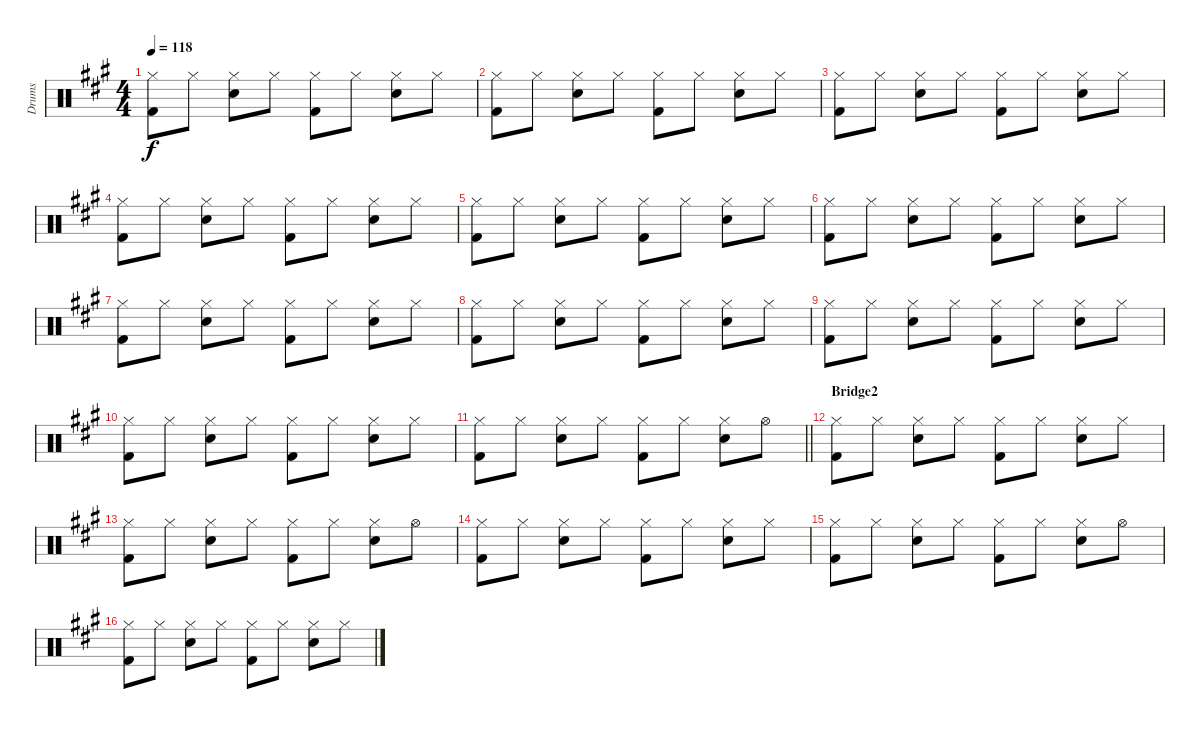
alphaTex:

\track ("Drums" "Drums") {instrument percussion}
\staff {score}
\articulation defaults
\ts (4 4)
\tempo 118
\clef neutral
\ks f#minor
("Hi-Hat (closed)" "Kick (hit) 2").8{dy f} "Hi-Hat (closed)".8 ("Hi-Hat (closed)" "Snare (hit) 2").8 "Hi-Hat (closed)".8 ("Hi-Hat (closed)" "Kick (hit) 2").8 "Hi-Hat (closed)".8 ("Hi-Hat (closed)" "Snare (hit) 2").8 "Hi-Hat (closed)".8 |
("Hi-Hat (closed)" "Kick (hit) 2").8 "Hi-Hat (closed)".8 ("Hi-Hat (closed)" "Snare (hit) 2").8 "Hi-Hat (closed)".8 ("Hi-Hat (closed)" "Kick (hit) 2").8 "Hi-Hat (closed)".8 ("Hi-Hat (closed)" "Snare (hit) 2").8 "Hi-Hat (closed)".8 |
("Hi-Hat (closed)" "Kick (hit) 2").8 "Hi-Hat (closed)".8 ("Hi-Hat (closed)" "Snare (hit) 2").8 "Hi-Hat (closed)".8 ("Hi-Hat (closed)" "Kick (hit) 2").8 "Hi-Hat (closed)".8 ("Hi-Hat (closed)" "Snare (hit) 2").8 "Hi-Hat (closed)".8 |
("Hi-Hat (closed)" "Kick (hit) 2").8 "Hi-Hat (closed)".8 ("Hi-Hat (closed)" "Snare (hit) 2").8 "Hi-Hat (closed)".8 ("Hi-Hat (closed)" "Kick (hit) 2").8 "Hi-Hat (closed)".8 ("Hi-Hat (closed)" "Snare (hit) 2").8 "Hi-Hat (closed)".8 |
("Hi-Hat (closed)" "Kick (hit) 2").8 "Hi-Hat (closed)".8 ("Hi-Hat (closed)" "Snare (hit) 2").8 "Hi-Hat (closed)".8 ("Hi-Hat (closed)" "Kick (hit) 2").8 "Hi-Hat (closed)".8 ("Hi-Hat (closed)" "Snare (hit) 2").8 "Hi-Hat (closed)".8 |
("Hi-Hat (closed)" "Kick (hit) 2").8 "Hi-Hat (closed)".8 ("Hi-Hat (closed)" "Snare (hit) 2").8 "Hi-Hat (closed)".8 ("Hi-Hat (closed)" "Kick (hit) 2").8 "Hi-Hat (closed)".8 ("Hi-Hat (closed)" "Snare (hit) 2").8 "Hi-Hat (closed)".8 |
("Hi-Hat (closed)" "Kick (hit) 2").8 "Hi-Hat (closed)".8 ("Hi-Hat (closed)" "Snare (hit) 2").8 "Hi-Hat (closed)".8 ("Hi-Hat (closed)" "Kick (hit) 2").8 "Hi-Hat (closed)".8 ("Hi-Hat (closed)" "Snare (hit) 2").8 "Hi-Hat (closed)".8 |
("Hi-Hat (closed)" "Kick (hit) 2").8 "Hi-Hat (closed)".8 ("Hi-Hat (closed)" "Snare (hit) 2").8 "Hi-Hat (closed)".8 ("Hi-Hat (closed)" "Kick (hit) 2").8 "Hi-Hat (closed)".8 ("Hi-Hat (closed)" "Snare (hit) 2").8 "Hi-Hat (closed)".8 |
("Hi-Hat (closed)" "Kick (hit) 2").8 "Hi-Hat (closed)".8 ("Hi-Hat (closed)" "Snare (hit) 2").8 "Hi-Hat (closed)".8 ("Hi-Hat (closed)" "Kick (hit) 2").8 "Hi-Hat (closed)".8 ("Hi-Hat (closed)" "Snare (hit) 2").8 "Hi-Hat (closed)".8 |
("Hi-Hat (closed)" "Kick (hit) 2").8 "Hi-Hat (closed)".8 ("Hi-Hat (closed)" "Snare (hit) 2").8 "Hi-Hat (closed)".8 ("Hi-Hat (closed)" "Kick (hit) 2").8 "Hi-Hat (closed)".8 ("Hi-Hat (closed)" "Snare (hit) 2").8 "Hi-Hat (closed)".8 |
\barLineRight lightlight
("Hi-Hat (closed)" "Kick (hit) 2").8 "Hi-Hat (closed)".8 ("Hi-Hat (closed)" "Snare (hit) 2").8 "Hi-Hat (closed)".8 ("Hi-Hat (closed)" "Kick (hit) 2").8 "Hi-Hat (closed)".8 ("Hi-Hat (closed)" "Snare (hit) 2").8 "Hi-Hat (open)".8 |
\section ("" "Bridge2")
("Hi-Hat (closed)" "Kick (hit) 2").8 "Hi-Hat (closed)".8 ("Hi-Hat (closed)" "Snare (hit) 2").8 "Hi-Hat (closed)".8 ("Hi-Hat (closed)" "Kick (hit) 2").8 "Hi-Hat (closed)".8 ("Hi-Hat (closed)" "Snare (hit) 2").8 "Hi-Hat (closed)".8 |
("Hi-Hat (closed)" "Kick (hit) 2").8 "Hi-Hat (closed)".8 ("Hi-Hat (closed)" "Snare (hit) 2").8 "Hi-Hat (closed)".8 ("Hi-Hat (closed)" "Kick (hit) 2").8 "Hi-Hat (closed)".8 ("Hi-Hat (closed)" "Snare (hit) 2").8 "Hi-Hat (open)".8 |
("Hi-Hat (closed)" "Kick (hit) 2").8 "Hi-Hat (closed)".8 ("Hi-Hat (closed)" "Snare (hit) 2").8 "Hi-Hat (closed)".8 ("Hi-Hat (closed)" "Kick (hit) 2").8 "Hi-Hat (closed)".8 ("Hi-Hat (closed)" "Snare (hit) 2").8 "Hi-Hat (closed)".8 |
("Hi-Hat (closed)" "Kick (hit) 2").8 "Hi-Hat (closed)".8 ("Hi-Hat (closed)" "Snare (hit) 2").8 "Hi-Hat (closed)".8 ("Hi-Hat (closed)" "Kick (hit) 2").8 "Hi-Hat (closed)".8 ("Hi-Hat (closed)" "Snare (hit) 2").8 "Hi-Hat (open)".8 |
("Hi-Hat (closed)" "Kick (hit) 2").8 "Hi-Hat (closed)".8 ("Hi-Hat (closed)" "Snare (hit) 2").8 "Hi-Hat (closed)".8 ("Hi-Hat (closed)" "Kick (hit) 2").8 "Hi-Hat (closed)".8 ("Hi-Hat (closed)" "Snare (hit) 2").8 "Hi-Hat (closed)".8
